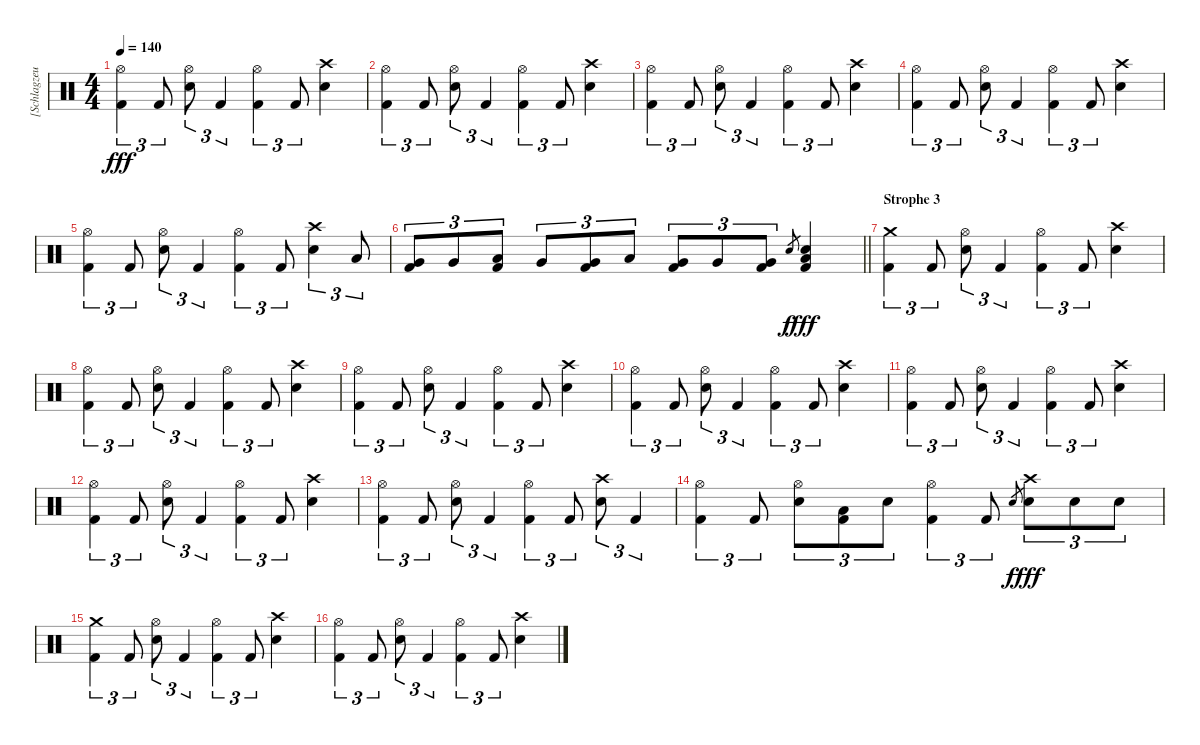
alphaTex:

\track ("[Schlagzeug]" "[Schlagzeu") {instrument percussion}
\staff {score}
\articulation defaults
\ts (4 4)
\tempo 140
\clef neutral
\ks c
("Hi-Hat (open)" "Kick (hit) 2").4{tu (3 2) dy fff} "Kick (hit) 2".8{tu (3 2)} ("Hi-Hat (open)" "Electric Snare (hit)").8{tu (3 2)} "Kick (hit) 2".4{tu (3 2)} ("Hi-Hat (open)" "Kick (hit) 2").4{tu (3 2)} "Kick (hit) 2".8{tu (3 2)} ("Crash high (hit)" "Electric Snare (hit)").4 |
("Hi-Hat (open)" "Kick (hit) 2").4{tu (3 2)} "Kick (hit) 2".8{tu (3 2)} ("Hi-Hat (open)" "Electric Snare (hit)").8{tu (3 2)} "Kick (hit) 2".4{tu (3 2)} ("Hi-Hat (open)" "Kick (hit) 2").4{tu (3 2)} "Kick (hit) 2".8{tu (3 2)} ("Crash high (hit)" "Electric Snare (hit)").4 |
("Hi-Hat (open)" "Kick (hit) 2").4{tu (3 2)} "Kick (hit) 2".8{tu (3 2)} ("Hi-Hat (open)" "Electric Snare (hit)").8{tu (3 2)} "Kick (hit) 2".4{tu (3 2)} ("Hi-Hat (open)" "Kick (hit) 2").4{tu (3 2)} "Kick (hit) 2".8{tu (3 2)} ("Crash high (hit)" "Electric Snare (hit)").4 |
("Hi-Hat (open)" "Kick (hit) 2").4{tu (3 2)} "Kick (hit) 2".8{tu (3 2)} ("Hi-Hat (open)" "Electric Snare (hit)").8{tu (3 2)} "Kick (hit) 2".4{tu (3 2)} ("Hi-Hat (open)" "Kick (hit) 2").4{tu (3 2)} "Kick (hit) 2".8{tu (3 2)} ("Crash high (hit)" "Electric Snare (hit)").4 |
("Hi-Hat (open)" "Kick (hit) 2").4{tu (3 2)} "Kick (hit) 2".8{tu (3 2)} ("Hi-Hat (open)" "Electric Snare (hit)").8{tu (3 2)} "Kick (hit) 2".4{tu (3 2)} ("Hi-Hat (open)" "Kick (hit) 2").4{tu (3 2)} "Kick (hit) 2".8{tu (3 2)} ("Crash high (hit)" "Electric Snare (hit)").4{tu (3 2)} "Low Floor Tom (hit)".8{tu (3 2)} |
\barLineRight lightlight
("Very Low Tom (hit)" "Kick (hit) 2").8{tu (3 2)} "Very Low Tom (hit)".8{tu (3 2)} ("Low Floor Tom (hit)" "Kick (hit) 2").8{tu (3 2)} "Very Low Tom (hit)".8{tu (3 2)} ("Very Low Tom (hit)" "Kick (hit) 2").8{tu (3 2)} "Low Floor Tom (hit)".8{tu (3 2)} ("Very Low Tom (hit)" "Kick (hit) 2").8{tu (3 2)} "Very Low Tom (hit)".8{tu (3 2)} ("Very Low Tom (hit)" "Kick (hit) 2").8{tu (3 2)} "Electric Snare (hit)".8{gr dy f} ("Electric Snare (hit)" "Low Floor Tom (hit)" "Kick (hit) 2").4{dy fff} |
\section ("" "Strophe 3")
("Crash medium (hit)" "Kick (hit) 2").4{tu (3 2)} "Kick (hit) 2".8{tu (3 2)} ("Hi-Hat (open)" "Electric Snare (hit)").8{tu (3 2)} "Kick (hit) 2".4{tu (3 2)} ("Hi-Hat (open)" "Kick (hit) 2").4{tu (3 2)} "Kick (hit) 2".8{tu (3 2)} ("Crash high (hit)" "Electric Snare (hit)").4 |
("Hi-Hat (open)" "Kick (hit) 2").4{tu (3 2)} "Kick (hit) 2".8{tu (3 2)} ("Hi-Hat (open)" "Electric Snare (hit)").8{tu (3 2)} "Kick (hit) 2".4{tu (3 2)} ("Hi-Hat (open)" "Kick (hit) 2").4{tu (3 2)} "Kick (hit) 2".8{tu (3 2)} ("Crash high (hit)" "Electric Snare (hit)").4 |
("Hi-Hat (open)" "Kick (hit) 2").4{tu (3 2)} "Kick (hit) 2".8{tu (3 2)} ("Hi-Hat (open)" "Electric Snare (hit)").8{tu (3 2)} "Kick (hit) 2".4{tu (3 2)} ("Hi-Hat (open)" "Kick (hit) 2").4{tu (3 2)} "Kick (hit) 2".8{tu (3 2)} ("Crash high (hit)" "Electric Snare (hit)").4 |
("Hi-Hat (open)" "Kick (hit) 2").4{tu (3 2)} "Kick (hit) 2".8{tu (3 2)} ("Hi-Hat (open)" "Electric Snare (hit)").8{tu (3 2)} "Kick (hit) 2".4{tu (3 2)} ("Hi-Hat (open)" "Kick (hit) 2").4{tu (3 2)} "Kick (hit) 2".8{tu (3 2)} ("Crash high (hit)" "Electric Snare (hit)").4 |
("Hi-Hat (open)" "Kick (hit) 2").4{tu (3 2)} "Kick (hit) 2".8{tu (3 2)} ("Hi-Hat (open)" "Electric Snare (hit)").8{tu (3 2)} "Kick (hit) 2".4{tu (3 2)} ("Hi-Hat (open)" "Kick (hit) 2").4{tu (3 2)} "Kick (hit) 2".8{tu (3 2)} ("Crash high (hit)" "Electric Snare (hit)").4 |
("Hi-Hat (open)" "Kick (hit) 2").4{tu (3 2)} "Kick (hit) 2".8{tu (3 2)} ("Hi-Hat (open)" "Electric Snare (hit)").8{tu (3 2)} "Kick (hit) 2".4{tu (3 2)} ("Hi-Hat (open)" "Kick (hit) 2").4{tu (3 2)} "Kick (hit) 2".8{tu (3 2)} ("Crash high (hit)" "Electric Snare (hit)").4 |
("Hi-Hat (open)" "Kick (hit) 2").4{tu (3 2)} "Kick (hit) 2".8{tu (3 2)} ("Hi-Hat (open)" "Electric Snare (hit)").8{tu (3 2)} "Kick (hit) 2".4{tu (3 2)} ("Hi-Hat (open)" "Kick (hit) 2").4{tu (3 2)} "Kick (hit) 2".8{tu (3 2)} ("Crash high (hit)" "Electric Snare (hit)").8{tu (3 2)} "Kick (hit) 2".4{tu (3 2)} |
("Hi-Hat (open)" "Kick (hit) 2").4{tu (3 2)} "Kick (hit) 2".8{tu (3 2)} ("Hi-Hat (open)" "Electric Snare (hit)").8{tu (3 2)} ("Low Floor Tom (hit)" "Kick (hit) 2").8{tu (3 2)} "Electric Snare (hit)".8{tu (3 2)} ("Hi-Hat (open)" "Kick (hit) 2").4{tu (3 2)} "Kick (hit) 2".8{tu (3 2)} "Electric Snare (hit)".8{gr dy f} ("Crash high (hit)" "Electric Snare (hit)").8{tu (3 2) dy fff} "Electric Snare (hit)".8{tu (3 2)} "Electric Snare (hit)".8{tu (3 2)} |
("Crash medium (hit)" "Kick (hit) 2").4{tu (3 2)} "Kick (hit) 2".8{tu (3 2)} ("Hi-Hat (open)" "Electric Snare (hit)").8{tu (3 2)} "Kick (hit) 2".4{tu (3 2)} ("Hi-Hat (open)" "Kick (hit) 2").4{tu (3 2)} "Kick (hit) 2".8{tu (3 2)} ("Crash high (hit)" "Electric Snare (hit)").4 |
("Hi-Hat (open)" "Kick (hit) 2").4{tu (3 2)} "Kick (hit) 2".8{tu (3 2)} ("Hi-Hat (open)" "Electric Snare (hit)").8{tu (3 2)} "Kick (hit) 2".4{tu (3 2)} ("Hi-Hat (open)" "Kick (hit) 2").4{tu (3 2)} "Kick (hit) 2".8{tu (3 2)} ("Crash high (hit)" "Electric Snare (hit)").4
